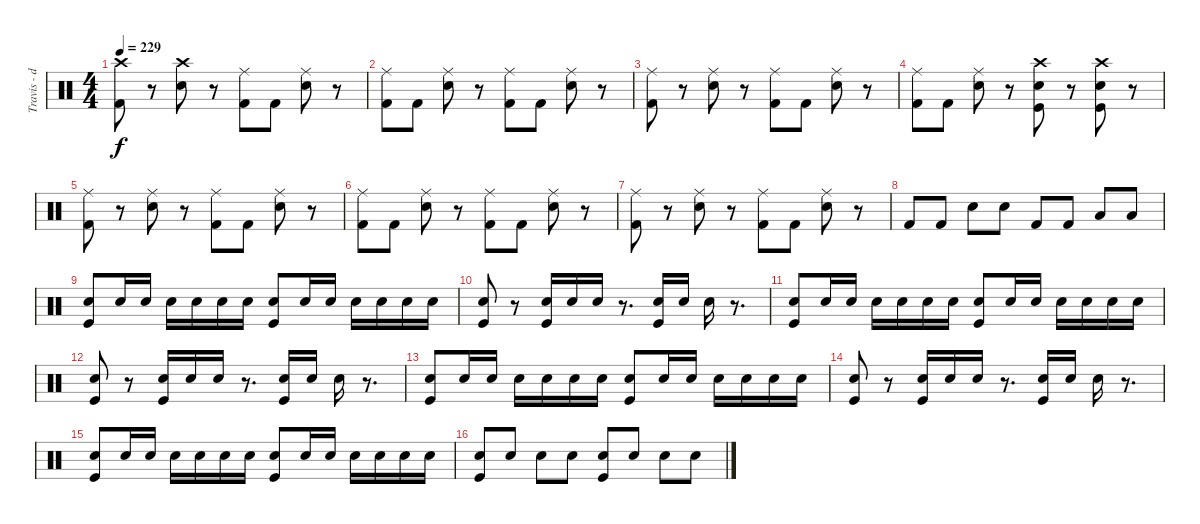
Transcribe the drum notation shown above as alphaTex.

\track ("Travis - drums" "Travis - d") {instrument percussion}
\staff {score}
\articulation defaults
\ts (4 4)
\tempo 229
\clef neutral
\ks c
("Crash high (hit)" "Kick (hit) 2").8{dy f} r.8 ("Crash high (hit)" "Electric Snare (hit)").8 r.8 ("Ride (middle)" "Kick (hit) 2").8 "Kick (hit) 2".8 ("Ride (middle)" "Electric Snare (hit)").8 r.8 |
("Ride (middle)" "Kick (hit) 2").8 "Kick (hit) 2".8 ("Ride (middle)" "Electric Snare (hit)").8 r.8 ("Ride (middle)" "Kick (hit) 2").8 "Kick (hit) 2".8 ("Ride (middle)" "Electric Snare (hit)").8 r.8 |
("Ride (middle)" "Kick (hit) 2").8 r.8 ("Ride (middle)" "Electric Snare (hit)").8 r.8 ("Ride (middle)" "Kick (hit) 2").8 "Kick (hit) 2".8 ("Ride (middle)" "Electric Snare (hit)").8 r.8 |
("Ride (middle)" "Kick (hit) 2").8 "Kick (hit) 2".8 ("Ride (middle)" "Electric Snare (hit)").8 r.8 ("Crash high (hit)" "Kick (hit)" "Electric Snare (hit)").8 r.8 ("Crash high (hit)" "Kick (hit)" "Electric Snare (hit)").8 r.8 |
("Ride (middle)" "Kick (hit) 2").8 r.8 ("Ride (middle)" "Electric Snare (hit)").8 r.8 ("Ride (middle)" "Kick (hit) 2").8 "Kick (hit) 2".8 ("Ride (middle)" "Electric Snare (hit)").8 r.8 |
("Ride (middle)" "Kick (hit) 2").8 "Kick (hit) 2".8 ("Ride (middle)" "Electric Snare (hit)").8 r.8 ("Ride (middle)" "Kick (hit) 2").8 "Kick (hit) 2".8 ("Ride (middle)" "Electric Snare (hit)").8 r.8 |
("Ride (middle)" "Kick (hit) 2").8 r.8 ("Ride (middle)" "Electric Snare (hit)").8 r.8 ("Ride (middle)" "Kick (hit) 2").8 "Kick (hit) 2".8 ("Ride (middle)" "Electric Snare (hit)").8 r.8 |
"Kick (hit) 2".8 "Kick (hit) 2".8 "Electric Snare (hit)".8 "Electric Snare (hit)".8 "Kick (hit) 2".8 "Kick (hit) 2".8 "Low Floor Tom (hit)".8 "Low Floor Tom (hit)".8 |
("Kick (hit)" "Snare (hit) 2").8 "Electric Snare (hit)".16 "Electric Snare (hit)".16 "Electric Snare (hit)".16 "Electric Snare (hit)".16 "Electric Snare (hit)".16 "Electric Snare (hit)".16 ("Kick (hit)" "Snare (hit) 2").8 "Electric Snare (hit)".16 "Electric Snare (hit)".16 "Electric Snare (hit)".16 "Electric Snare (hit)".16 "Electric Snare (hit)".16 "Electric Snare (hit)".16 |
("Kick (hit)" "Electric Snare (hit)").8 r.8 ("Kick (hit)" "Electric Snare (hit)").16 "Electric Snare (hit)".16 "Electric Snare (hit)".16 r.8{d} ("Kick (hit)" "Electric Snare (hit)").16 "Electric Snare (hit)".16 "Electric Snare (hit)".16 r.8{d} |
("Kick (hit)" "Snare (hit) 2").8 "Electric Snare (hit)".16 "Electric Snare (hit)".16 "Electric Snare (hit)".16 "Electric Snare (hit)".16 "Electric Snare (hit)".16 "Electric Snare (hit)".16 ("Kick (hit)" "Snare (hit) 2").8 "Electric Snare (hit)".16 "Electric Snare (hit)".16 "Electric Snare (hit)".16 "Electric Snare (hit)".16 "Electric Snare (hit)".16 "Electric Snare (hit)".16 |
("Kick (hit)" "Electric Snare (hit)").8 r.8 ("Kick (hit)" "Electric Snare (hit)").16 "Electric Snare (hit)".16 "Electric Snare (hit)".16 r.8{d} ("Kick (hit)" "Electric Snare (hit)").16 "Electric Snare (hit)".16 "Electric Snare (hit)".16 r.8{d} |
("Kick (hit)" "Snare (hit) 2").8 "Electric Snare (hit)".16 "Electric Snare (hit)".16 "Electric Snare (hit)".16 "Electric Snare (hit)".16 "Electric Snare (hit)".16 "Electric Snare (hit)".16 ("Kick (hit)" "Snare (hit) 2").8 "Electric Snare (hit)".16 "Electric Snare (hit)".16 "Electric Snare (hit)".16 "Electric Snare (hit)".16 "Electric Snare (hit)".16 "Electric Snare (hit)".16 |
("Kick (hit)" "Electric Snare (hit)").8 r.8 ("Kick (hit)" "Electric Snare (hit)").16 "Electric Snare (hit)".16 "Electric Snare (hit)".16 r.8{d} ("Kick (hit)" "Electric Snare (hit)").16 "Electric Snare (hit)".16 "Electric Snare (hit)".16 r.8{d} |
("Kick (hit)" "Snare (hit) 2").8 "Electric Snare (hit)".16 "Electric Snare (hit)".16 "Electric Snare (hit)".16 "Electric Snare (hit)".16 "Electric Snare (hit)".16 "Electric Snare (hit)".16 ("Kick (hit)" "Snare (hit) 2").8 "Electric Snare (hit)".16 "Electric Snare (hit)".16 "Electric Snare (hit)".16 "Electric Snare (hit)".16 "Electric Snare (hit)".16 "Electric Snare (hit)".16 |
("Kick (hit)" "Electric Snare (hit)").8 "Electric Snare (hit)".8 "Electric Snare (hit)".8 "Electric Snare (hit)".8 ("Kick (hit)" "Electric Snare (hit)").8 "Electric Snare (hit)".8 "Electric Snare (hit)".8 "Electric Snare (hit)".8
